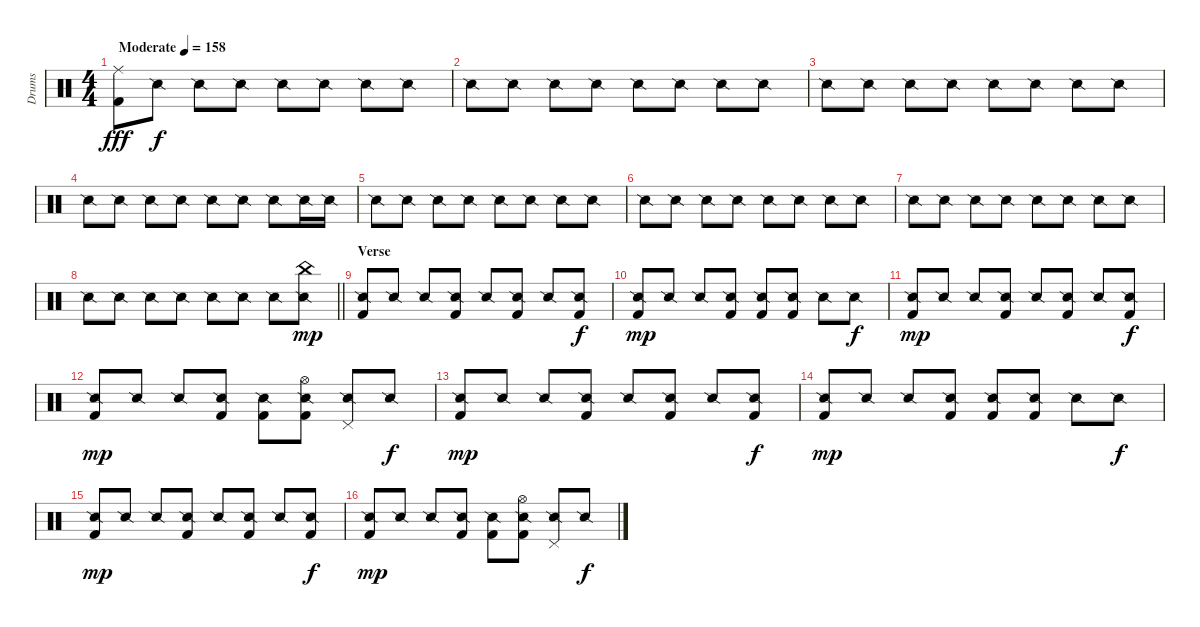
\track ("Drums" "Drums") {instrument percussion}
\staff {score}
\articulation defaults
\ts (4 4)
\tempo (158 "Moderate")
\clef neutral
\ks c
("Ride (middle)" "Kick (hit) 2").8{dy fff} "Snare (side stick) 2".8{dy f} "Snare (side stick) 2".8 "Snare (side stick) 2".8 "Snare (side stick) 2".8 "Snare (side stick) 2".8 "Snare (side stick) 2".8 "Snare (side stick) 2".8 |
"Snare (side stick) 2".8 "Snare (side stick) 2".8 "Snare (side stick) 2".8 "Snare (side stick) 2".8 "Snare (side stick) 2".8 "Snare (side stick) 2".8 "Snare (side stick) 2".8 "Snare (side stick) 2".8 |
"Snare (side stick) 2".8 "Snare (side stick) 2".8 "Snare (side stick) 2".8 "Snare (side stick) 2".8 "Snare (side stick) 2".8 "Snare (side stick) 2".8 "Snare (side stick) 2".8 "Snare (side stick) 2".8 |
"Snare (side stick) 2".8 "Snare (side stick) 2".8 "Snare (side stick) 2".8 "Snare (side stick) 2".8 "Snare (side stick) 2".8 "Snare (side stick) 2".8 "Snare (side stick) 2".8 "Snare (side stick) 2".16 "Snare (side stick) 2".16 |
"Snare (side stick) 2".8 "Snare (side stick) 2".8 "Snare (side stick) 2".8 "Snare (side stick) 2".8 "Snare (side stick) 2".8 "Snare (side stick) 2".8 "Snare (side stick) 2".8 "Snare (side stick) 2".8 |
"Snare (side stick) 2".8 "Snare (side stick) 2".8 "Snare (side stick) 2".8 "Snare (side stick) 2".8 "Snare (side stick) 2".8 "Snare (side stick) 2".8 "Snare (side stick) 2".8 "Snare (side stick) 2".8 |
"Snare (side stick) 2".8 "Snare (side stick) 2".8 "Snare (side stick) 2".8 "Snare (side stick) 2".8 "Snare (side stick) 2".8 "Snare (side stick) 2".8 "Snare (side stick) 2".8 "Snare (side stick) 2".8 |
\barLineRight lightlight "Snare (side stick) 2".8 "Snare (side stick) 2".8 "Snare (side stick) 2".8 "Snare (side stick) 2".8 "Snare (side stick) 2".8 "Snare (side stick) 2".8 "Snare (side stick) 2".8
("China (hit)" "Snare (side stick) 2").8{dy mp} |
\section ("" "Verse")
("Snare (side stick) 2" "Kick (hit) 2").8 "Snare (side stick) 2".8 "Snare (side stick) 2".8 ("Snare (side stick) 2" "Kick (hit) 2").8 "Snare (side stick) 2".8 ("Snare (side stick) 2" "Kick (hit) 2").8 "Snare (side stick) 2".8 ("Snare (side stick) 2" "Kick (hit) 2").8{dy f} |
("Snare (side stick) 2" "Kick (hit) 2").8{dy mp} "Snare (side stick) 2".8 "Snare (side stick) 2".8 ("Snare (side stick) 2" "Kick (hit) 2").8 ("Snare (side stick) 2" "Kick (hit) 2").8 ("Snare (side stick) 2" "Kick (hit) 2").8 "Snare (side stick) 2".8 "Snare (side stick) 2".8{dy f} |
("Snare (side stick) 2" "Kick (hit) 2").8{dy mp} "Snare (side stick) 2".8 "Snare (side stick) 2".8 ("Snare (side stick) 2" "Kick (hit) 2").8 "Snare (side stick) 2".8 ("Snare (side stick) 2" "Kick (hit) 2").8 "Snare (side stick) 2".8 ("Snare (side stick) 2" "Kick (hit) 2").8{dy f} |
("Snare (side stick) 2" "Kick (hit) 2").8{dy mp} "Snare (side stick) 2".8 "Snare (side stick) 2".8 ("Snare (side stick) 2" "Kick (hit) 2").8 ("Snare (side stick) 2" "Kick (hit) 2").8 ("Hi-Hat (open)" "Snare (side stick) 2" "Kick (hit) 2").8 ("Pedal Hi-Hat (hit)" "Snare (side stick) 2").8 "Snare (side stick) 2".8{dy f} |
("Snare (side stick) 2" "Kick (hit) 2").8{dy mp} "Snare (side stick) 2".8 "Snare (side stick) 2".8 ("Snare (side stick) 2" "Kick (hit) 2").8 "Snare (side stick) 2".8 ("Snare (side stick) 2" "Kick (hit) 2").8 "Snare (side stick) 2".8 ("Snare (side stick) 2" "Kick (hit) 2").8{dy f} |
("Snare (side stick) 2" "Kick (hit) 2").8{dy mp} "Snare (side stick) 2".8 "Snare (side stick) 2".8 ("Snare (side stick) 2" "Kick (hit) 2").8 ("Snare (side stick) 2" "Kick (hit) 2").8 ("Snare (side stick) 2" "Kick (hit) 2").8 "Snare (side stick) 2".8 "Snare (side stick) 2".8{dy f} |
("Snare (side stick) 2" "Kick (hit) 2").8{dy mp} "Snare (side stick) 2".8 "Snare (side stick) 2".8 ("Snare (side stick) 2" "Kick (hit) 2").8 "Snare (side stick) 2".8 ("Snare (side stick) 2" "Kick (hit) 2").8 "Snare (side stick) 2".8 ("Snare (side stick) 2" "Kick (hit) 2").8{dy f} |
("Snare (side stick) 2" "Kick (hit) 2").8{dy mp} "Snare (side stick) 2".8 "Snare (side stick) 2".8 ("Snare (side stick) 2" "Kick (hit) 2").8 ("Snare (side stick) 2" "Kick (hit) 2").8 ("Hi-Hat (open)" "Snare (side stick) 2" "Kick (hit) 2").8 ("Pedal Hi-Hat (hit)" "Snare (side stick) 2").8 "Snare (side stick) 2".8{dy f}
